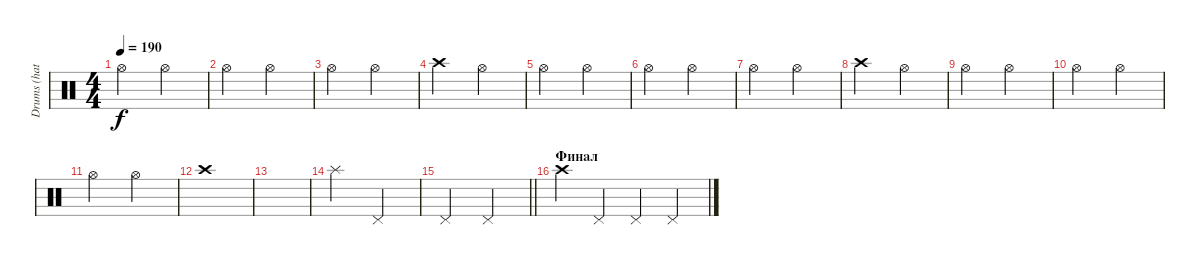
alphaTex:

\track ("Drums (hats)" "Drums (hat") {instrument percussion}
\staff {score}
\articulation defaults
\ts (4 4)
\tempo 190
\clef neutral
\ks c "Hi-Hat (open)".2{dy f} "Hi-Hat (open)".2
|
"Hi-Hat (open)".2 "Hi-Hat (open)".2 |
"Hi-Hat (open)".2 "Hi-Hat (open)".2 |
"Crash high (hit)".2 "Hi-Hat (open)".2 |
"Hi-Hat (open)".2 "Hi-Hat (open)".2 |
"Hi-Hat (open)".2 "Hi-Hat (open)".2 |
"Hi-Hat (open)".2 "Hi-Hat (open)".2 |
"Crash high (hit)".2 "Hi-Hat (open)".2 |
"Hi-Hat (open)".2 "Hi-Hat (open)".2 |
"Hi-Hat (open)".2 "Hi-Hat (open)".2 |
"Hi-Hat (open)".2 "Hi-Hat (open)".2 |
"Crash high (hit)".1 |
|
"Splash (hit)".2 "Pedal Hi-Hat (hit)".2 |
\barLineRight lightlight "Pedal Hi-Hat (hit)".2 "Pedal Hi-Hat (hit)".2
|
\section ("" "Финал")
"Crash high (hit)".4 "Pedal Hi-Hat (hit)".4 "Pedal Hi-Hat (hit)".4 "Pedal Hi-Hat (hit)".4
